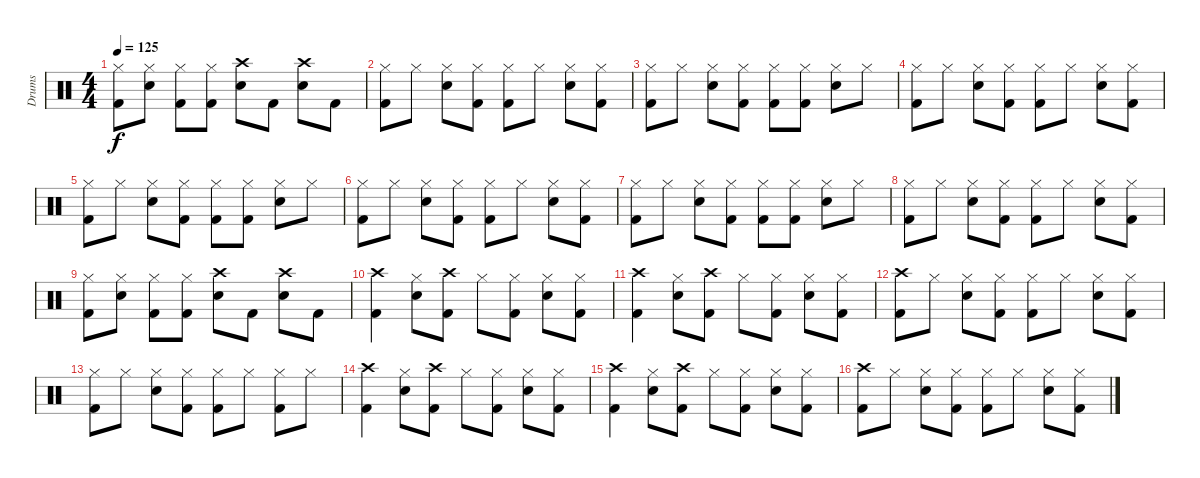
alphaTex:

\track ("Drums" "Drums") {instrument percussion}
\staff {score}
\articulation defaults
\ts (4 4)
\tempo 125
\clef neutral
\ks c
("Hi-Hat (closed)" "Kick (hit) 2").8{dy f} ("Hi-Hat (closed)" "Snare (hit) 2").8 ("Hi-Hat (closed)" "Kick (hit) 2").8 ("Hi-Hat (closed)" "Kick (hit) 2").8 ("Crash high (hit)" "Snare (hit) 2").8 "Kick (hit) 2".8 ("Crash high (hit)" "Snare (hit) 2").8 "Kick (hit) 2".8 |
("Hi-Hat (closed)" "Kick (hit) 2").8 "Hi-Hat (closed)".8 ("Hi-Hat (closed)" "Snare (hit) 2").8 ("Hi-Hat (closed)" "Kick (hit) 2").8 ("Hi-Hat (closed)" "Kick (hit) 2").8 "Hi-Hat (closed)".8 ("Hi-Hat (closed)" "Snare (hit) 2").8 ("Hi-Hat (closed)" "Kick (hit) 2").8 |
("Hi-Hat (closed)" "Kick (hit) 2").8 "Hi-Hat (closed)".8 ("Hi-Hat (closed)" "Snare (hit) 2").8 ("Hi-Hat (closed)" "Kick (hit) 2").8 ("Hi-Hat (closed)" "Kick (hit) 2").8 ("Hi-Hat (closed)" "Kick (hit) 2").8 ("Hi-Hat (closed)" "Snare (hit) 2").8 "Hi-Hat (closed)".8 |
("Hi-Hat (closed)" "Kick (hit) 2").8 "Hi-Hat (closed)".8 ("Hi-Hat (closed)" "Snare (hit) 2").8 ("Hi-Hat (closed)" "Kick (hit) 2").8 ("Hi-Hat (closed)" "Kick (hit) 2").8 "Hi-Hat (closed)".8 ("Hi-Hat (closed)" "Snare (hit) 2").8 ("Hi-Hat (closed)" "Kick (hit) 2").8 |
("Hi-Hat (closed)" "Kick (hit) 2").8 "Hi-Hat (closed)".8 ("Hi-Hat (closed)" "Snare (hit) 2").8 ("Hi-Hat (closed)" "Kick (hit) 2").8 ("Hi-Hat (closed)" "Kick (hit) 2").8 ("Hi-Hat (closed)" "Kick (hit) 2").8 ("Hi-Hat (closed)" "Snare (hit) 2").8 "Hi-Hat (closed)".8 |
("Hi-Hat (closed)" "Kick (hit) 2").8 "Hi-Hat (closed)".8 ("Hi-Hat (closed)" "Snare (hit) 2").8 ("Hi-Hat (closed)" "Kick (hit) 2").8 ("Hi-Hat (closed)" "Kick (hit) 2").8 "Hi-Hat (closed)".8 ("Hi-Hat (closed)" "Snare (hit) 2").8 ("Hi-Hat (closed)" "Kick (hit) 2").8 |
("Hi-Hat (closed)" "Kick (hit) 2").8 "Hi-Hat (closed)".8 ("Hi-Hat (closed)" "Snare (hit) 2").8 ("Hi-Hat (closed)" "Kick (hit) 2").8 ("Hi-Hat (closed)" "Kick (hit) 2").8 ("Hi-Hat (closed)" "Kick (hit) 2").8 ("Hi-Hat (closed)" "Snare (hit) 2").8 "Hi-Hat (closed)".8 |
("Hi-Hat (closed)" "Kick (hit) 2").8 "Hi-Hat (closed)".8 ("Hi-Hat (closed)" "Snare (hit) 2").8 ("Hi-Hat (closed)" "Kick (hit) 2").8 ("Hi-Hat (closed)" "Kick (hit) 2").8 "Hi-Hat (closed)".8 ("Hi-Hat (closed)" "Snare (hit) 2").8 ("Hi-Hat (closed)" "Kick (hit) 2").8 |
("Hi-Hat (closed)" "Kick (hit) 2").8 ("Hi-Hat (closed)" "Snare (hit) 2").8 ("Hi-Hat (closed)" "Kick (hit) 2").8 ("Hi-Hat (closed)" "Kick (hit) 2").8 ("Crash high (hit)" "Snare (hit) 2").8 "Kick (hit) 2".8 ("Crash high (hit)" "Snare (hit) 2").8 "Kick (hit) 2".8 |
("Crash high (hit)" "Kick (hit) 2").4 ("Hi-Hat (closed)" "Snare (hit) 2").8 ("Kick (hit) 2" "Crash high (hit)").8 "Hi-Hat (closed)".8 ("Kick (hit) 2" "Hi-Hat (closed)").8 ("Hi-Hat (closed)" "Snare (hit) 2").8 ("Hi-Hat (closed)" "Kick (hit) 2").8 |
("Crash high (hit)" "Kick (hit) 2").4 ("Hi-Hat (closed)" "Snare (hit) 2").8 ("Kick (hit) 2" "Crash high (hit)").8 "Hi-Hat (closed)".8 ("Kick (hit) 2" "Hi-Hat (closed)").8 ("Hi-Hat (closed)" "Snare (hit) 2").8 ("Hi-Hat (closed)" "Kick (hit) 2").8 |
("Crash high (hit)" "Kick (hit) 2").8 "Hi-Hat (closed)".8 ("Hi-Hat (closed)" "Snare (hit) 2").8 ("Hi-Hat (closed)" "Kick (hit) 2").8 ("Hi-Hat (closed)" "Kick (hit) 2").8 "Hi-Hat (closed)".8 ("Hi-Hat (closed)" "Snare (hit) 2").8 ("Hi-Hat (closed)" "Kick (hit) 2").8 |
("Hi-Hat (closed)" "Kick (hit) 2").8 "Hi-Hat (closed)".8 ("Hi-Hat (closed)" "Snare (hit) 2").8 ("Hi-Hat (closed)" "Kick (hit) 2").8 ("Hi-Hat (closed)" "Kick (hit) 2").8 "Hi-Hat (closed)".8 ("Hi-Hat (closed)" "Kick (hit) 2").8 "Hi-Hat (closed)".8 |
("Crash high (hit)" "Kick (hit) 2").4 ("Hi-Hat (closed)" "Snare (hit) 2").8 ("Kick (hit) 2" "Crash high (hit)").8 "Hi-Hat (closed)".8 ("Kick (hit) 2" "Hi-Hat (closed)").8 ("Hi-Hat (closed)" "Snare (hit) 2").8 ("Hi-Hat (closed)" "Kick (hit) 2").8 |
("Crash high (hit)" "Kick (hit) 2").4 ("Hi-Hat (closed)" "Snare (hit) 2").8 ("Kick (hit) 2" "Crash high (hit)").8 "Hi-Hat (closed)".8 ("Kick (hit) 2" "Hi-Hat (closed)").8 ("Hi-Hat (closed)" "Snare (hit) 2").8 ("Hi-Hat (closed)" "Kick (hit) 2").8 |
("Crash high (hit)" "Kick (hit) 2").8 "Hi-Hat (closed)".8 ("Hi-Hat (closed)" "Snare (hit) 2").8 ("Hi-Hat (closed)" "Kick (hit) 2").8 ("Hi-Hat (closed)" "Kick (hit) 2").8 "Hi-Hat (closed)".8 ("Hi-Hat (closed)" "Snare (hit) 2").8 ("Hi-Hat (closed)" "Kick (hit) 2").8
